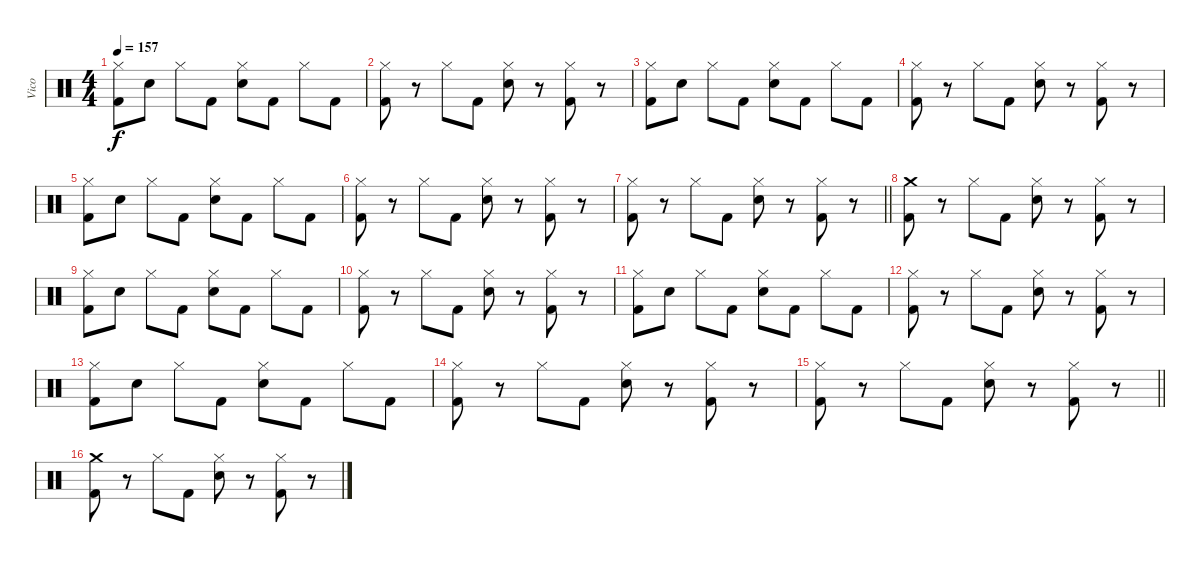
\track ("Vico" "Vico") {instrument percussion}
\staff {score}
\articulation defaults
\ts (4 4)
\tempo 157
\clef neutral
\ks c
("Hi-Hat (closed)" "Kick (hit) 2").8{dy f} "Electric Snare (hit)".8 "Hi-Hat (closed)".8 "Kick (hit) 2".8 ("Hi-Hat (closed)" "Electric Snare (hit)").8 "Kick (hit) 2".8 "Hi-Hat (closed)".8 "Kick (hit) 2".8 |
("Hi-Hat (closed)" "Kick (hit) 2").8 r.8 "Hi-Hat (closed)".8 "Kick (hit) 2".8 ("Hi-Hat (closed)" "Electric Snare (hit)").8 r.8 ("Hi-Hat (closed)" "Kick (hit) 2").8 r.8 |
("Hi-Hat (closed)" "Kick (hit) 2").8 "Electric Snare (hit)".8 "Hi-Hat (closed)".8 "Kick (hit) 2".8 ("Hi-Hat (closed)" "Electric Snare (hit)").8 "Kick (hit) 2".8 "Hi-Hat (closed)".8 "Kick (hit) 2".8 |
("Hi-Hat (closed)" "Kick (hit) 2").8 r.8 "Hi-Hat (closed)".8 "Kick (hit) 2".8 ("Hi-Hat (closed)" "Electric Snare (hit)").8 r.8 ("Hi-Hat (closed)" "Kick (hit) 2").8 r.8 |
("Hi-Hat (closed)" "Kick (hit) 2").8 "Electric Snare (hit)".8 "Hi-Hat (closed)".8 "Kick (hit) 2".8 ("Hi-Hat (closed)" "Electric Snare (hit)").8 "Kick (hit) 2".8 "Hi-Hat (closed)".8 "Kick (hit) 2".8 |
("Hi-Hat (closed)" "Kick (hit) 2").8 r.8 "Hi-Hat (closed)".8 "Kick (hit) 2".8 ("Hi-Hat (closed)" "Electric Snare (hit)").8 r.8 ("Hi-Hat (closed)" "Kick (hit) 2").8 r.8 |
\barLineRight lightlight
("Hi-Hat (closed)" "Kick (hit) 2").8 r.8 "Hi-Hat (closed)".8 "Kick (hit) 2".8 ("Hi-Hat (closed)" "Electric Snare (hit)").8 r.8 ("Hi-Hat (closed)" "Kick (hit) 2").8 r.8 |
("Crash medium (hit)" "Kick (hit) 2").8 r.8 "Hi-Hat (closed)".8 "Kick (hit) 2".8 ("Hi-Hat (closed)" "Electric Snare (hit)").8 r.8 ("Hi-Hat (closed)" "Kick (hit) 2").8 r.8 |
("Hi-Hat (closed)" "Kick (hit) 2").8 "Electric Snare (hit)".8 "Hi-Hat (closed)".8 "Kick (hit) 2".8 ("Hi-Hat (closed)" "Electric Snare (hit)").8 "Kick (hit) 2".8 "Hi-Hat (closed)".8 "Kick (hit) 2".8 |
("Hi-Hat (closed)" "Kick (hit) 2").8 r.8 "Hi-Hat (closed)".8 "Kick (hit) 2".8 ("Hi-Hat (closed)" "Electric Snare (hit)").8 r.8 ("Hi-Hat (closed)" "Kick (hit) 2").8 r.8 |
("Hi-Hat (closed)" "Kick (hit) 2").8 "Electric Snare (hit)".8 "Hi-Hat (closed)".8 "Kick (hit) 2".8 ("Hi-Hat (closed)" "Electric Snare (hit)").8 "Kick (hit) 2".8 "Hi-Hat (closed)".8 "Kick (hit) 2".8 |
("Hi-Hat (closed)" "Kick (hit) 2").8 r.8 "Hi-Hat (closed)".8 "Kick (hit) 2".8 ("Hi-Hat (closed)" "Electric Snare (hit)").8 r.8 ("Hi-Hat (closed)" "Kick (hit) 2").8 r.8 |
("Hi-Hat (closed)" "Kick (hit) 2").8 "Electric Snare (hit)".8 "Hi-Hat (closed)".8 "Kick (hit) 2".8 ("Hi-Hat (closed)" "Electric Snare (hit)").8 "Kick (hit) 2".8 "Hi-Hat (closed)".8 "Kick (hit) 2".8 |
("Hi-Hat (closed)" "Kick (hit) 2").8 r.8 "Hi-Hat (closed)".8 "Kick (hit) 2".8 ("Hi-Hat (closed)" "Electric Snare (hit)").8 r.8 ("Hi-Hat (closed)" "Kick (hit) 2").8 r.8 |
\barLineRight lightlight
("Hi-Hat (closed)" "Kick (hit) 2").8 r.8 "Hi-Hat (closed)".8 "Kick (hit) 2".8 ("Hi-Hat (closed)" "Electric Snare (hit)").8 r.8 ("Hi-Hat (closed)" "Kick (hit) 2").8 r.8 |
("Crash medium (hit)" "Kick (hit) 2").8 r.8 "Hi-Hat (closed)".8 "Kick (hit) 2".8 ("Hi-Hat (closed)" "Electric Snare (hit)").8 r.8 ("Hi-Hat (closed)" "Kick (hit) 2").8 r.8
